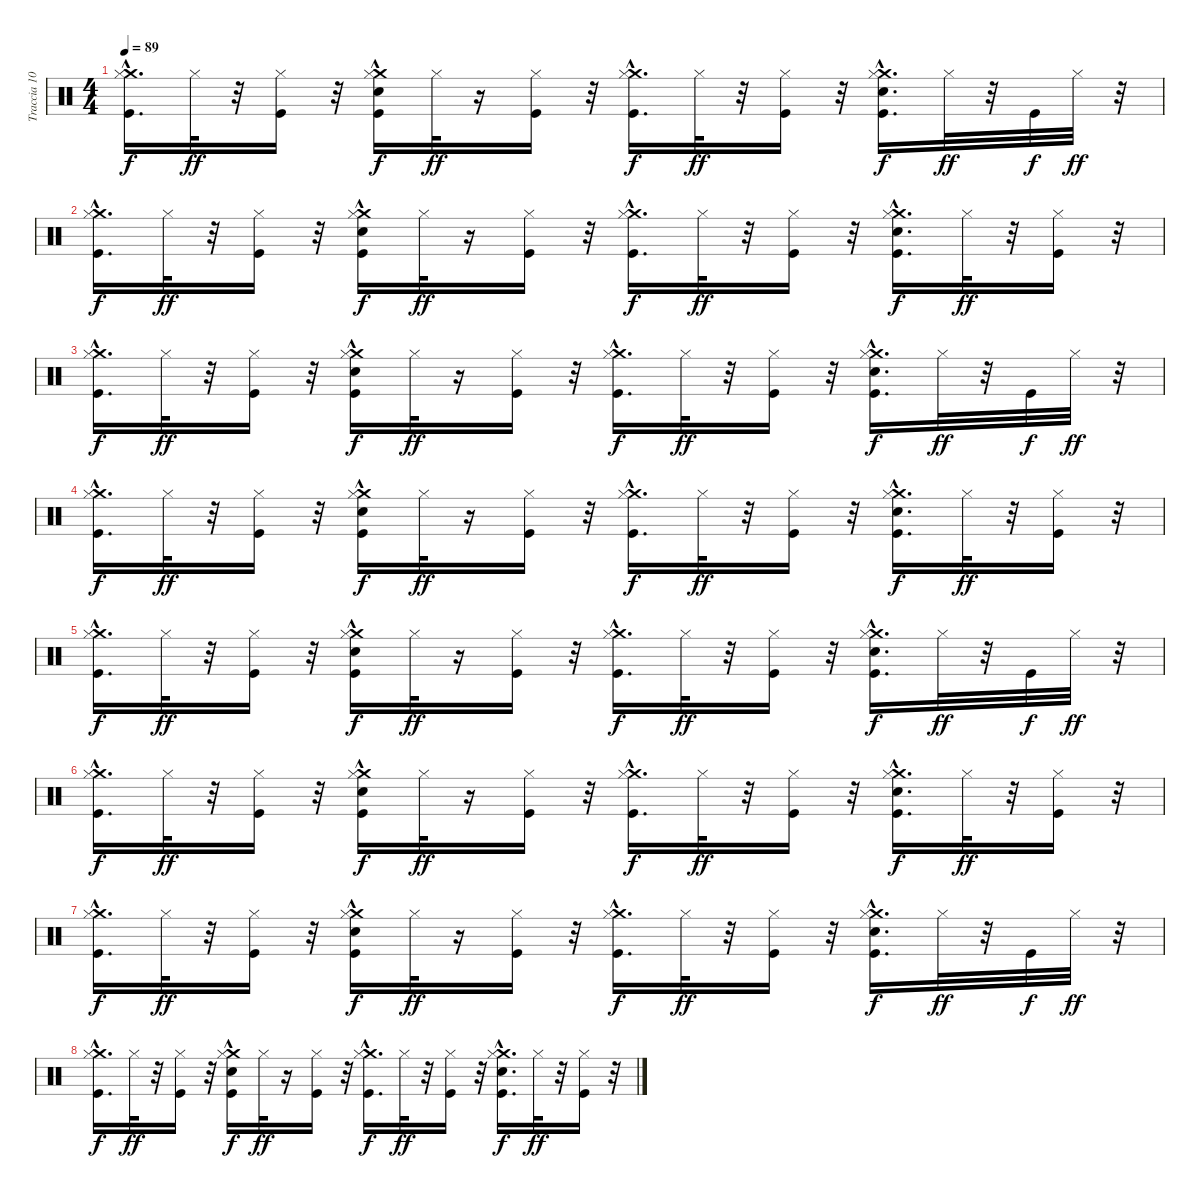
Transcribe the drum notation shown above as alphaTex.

\track ("Traccia 10" "Traccia 10") {instrument percussion}
\staff {score}
\articulation defaults
\ts (4 4)
\tempo 89
\clef neutral
\ks c
("Kick (hit)" "Crash medium (hit)"{hac} "Hi-Hat (closed)").16{d dy f} "Hi-Hat (closed)".32{dy ff} r.32 ("Kick (hit)" "Hi-Hat (closed)").16 r.32 ("Kick (hit)" "Crash medium (hit)"{hac} "Electric Snare (hit)" "Hi-Hat (closed)").16{dy f} "Hi-Hat (closed)".32{dy ff} r.16 ("Kick (hit)" "Hi-Hat (closed)").16 r.32 ("Kick (hit)" "Crash medium (hit)"{hac} "Hi-Hat (closed)").16{d dy f} "Hi-Hat (closed)".32{dy ff} r.32 ("Kick (hit)" "Hi-Hat (closed)").16 r.32 ("Kick (hit)" "Crash medium (hit)"{hac} "Electric Snare (hit)" "Hi-Hat (closed)").16{d dy f} "Hi-Hat (closed)".32{dy ff} r.32 "Kick (hit)".32{dy f} "Hi-Hat (closed)".32{dy ff} r.32 |
("Kick (hit)" "Crash medium (hit)"{hac} "Hi-Hat (closed)").16{d dy f} "Hi-Hat (closed)".32{dy ff} r.32 ("Kick (hit)" "Hi-Hat (closed)").16 r.32 ("Kick (hit)" "Crash medium (hit)"{hac} "Electric Snare (hit)" "Hi-Hat (closed)").16{dy f} "Hi-Hat (closed)".32{dy ff} r.16 ("Kick (hit)" "Hi-Hat (closed)").16 r.32 ("Kick (hit)" "Crash medium (hit)"{hac} "Hi-Hat (closed)").16{d dy f} "Hi-Hat (closed)".32{dy ff} r.32 ("Kick (hit)" "Hi-Hat (closed)").16 r.32 ("Kick (hit)" "Crash medium (hit)"{hac} "Electric Snare (hit)" "Hi-Hat (closed)").16{d dy f} "Hi-Hat (closed)".32{dy ff} r.32 ("Kick (hit)" "Hi-Hat (closed)").16 r.32 |
("Kick (hit)" "Crash medium (hit)"{hac} "Hi-Hat (closed)").16{d dy f} "Hi-Hat (closed)".32{dy ff} r.32 ("Kick (hit)" "Hi-Hat (closed)").16 r.32 ("Kick (hit)" "Crash medium (hit)"{hac} "Electric Snare (hit)" "Hi-Hat (closed)").16{dy f} "Hi-Hat (closed)".32{dy ff} r.16 ("Kick (hit)" "Hi-Hat (closed)").16 r.32 ("Kick (hit)" "Crash medium (hit)"{hac} "Hi-Hat (closed)").16{d dy f} "Hi-Hat (closed)".32{dy ff} r.32 ("Kick (hit)" "Hi-Hat (closed)").16 r.32 ("Kick (hit)" "Crash medium (hit)"{hac} "Electric Snare (hit)" "Hi-Hat (closed)").16{d dy f} "Hi-Hat (closed)".32{dy ff} r.32 "Kick (hit)".32{dy f} "Hi-Hat (closed)".32{dy ff} r.32 |
("Kick (hit)" "Crash medium (hit)"{hac} "Hi-Hat (closed)").16{d dy f} "Hi-Hat (closed)".32{dy ff} r.32 ("Kick (hit)" "Hi-Hat (closed)").16 r.32 ("Kick (hit)" "Crash medium (hit)"{hac} "Electric Snare (hit)" "Hi-Hat (closed)").16{dy f} "Hi-Hat (closed)".32{dy ff} r.16 ("Kick (hit)" "Hi-Hat (closed)").16 r.32 ("Kick (hit)" "Crash medium (hit)"{hac} "Hi-Hat (closed)").16{d dy f} "Hi-Hat (closed)".32{dy ff} r.32 ("Kick (hit)" "Hi-Hat (closed)").16 r.32 ("Kick (hit)" "Crash medium (hit)"{hac} "Electric Snare (hit)" "Hi-Hat (closed)").16{d dy f} "Hi-Hat (closed)".32{dy ff} r.32 ("Kick (hit)" "Hi-Hat (closed)").16 r.32 |
("Kick (hit)" "Crash medium (hit)"{hac} "Hi-Hat (closed)").16{d dy f} "Hi-Hat (closed)".32{dy ff} r.32 ("Kick (hit)" "Hi-Hat (closed)").16 r.32 ("Kick (hit)" "Crash medium (hit)"{hac} "Electric Snare (hit)" "Hi-Hat (closed)").16{dy f} "Hi-Hat (closed)".32{dy ff} r.16 ("Kick (hit)" "Hi-Hat (closed)").16 r.32 ("Kick (hit)" "Crash medium (hit)"{hac} "Hi-Hat (closed)").16{d dy f} "Hi-Hat (closed)".32{dy ff} r.32 ("Kick (hit)" "Hi-Hat (closed)").16 r.32 ("Kick (hit)" "Crash medium (hit)"{hac} "Electric Snare (hit)" "Hi-Hat (closed)").16{d dy f} "Hi-Hat (closed)".32{dy ff} r.32 "Kick (hit)".32{dy f} "Hi-Hat (closed)".32{dy ff} r.32 |
("Kick (hit)" "Crash medium (hit)"{hac} "Hi-Hat (closed)").16{d dy f} "Hi-Hat (closed)".32{dy ff} r.32 ("Kick (hit)" "Hi-Hat (closed)").16 r.32 ("Kick (hit)" "Crash medium (hit)"{hac} "Electric Snare (hit)" "Hi-Hat (closed)").16{dy f} "Hi-Hat (closed)".32{dy ff} r.16 ("Kick (hit)" "Hi-Hat (closed)").16 r.32 ("Kick (hit)" "Crash medium (hit)"{hac} "Hi-Hat (closed)").16{d dy f} "Hi-Hat (closed)".32{dy ff} r.32 ("Kick (hit)" "Hi-Hat (closed)").16 r.32 ("Kick (hit)" "Crash medium (hit)"{hac} "Electric Snare (hit)" "Hi-Hat (closed)").16{d dy f} "Hi-Hat (closed)".32{dy ff} r.32 ("Kick (hit)" "Hi-Hat (closed)").16 r.32 |
("Kick (hit)" "Crash medium (hit)"{hac} "Hi-Hat (closed)").16{d dy f} "Hi-Hat (closed)".32{dy ff} r.32 ("Kick (hit)" "Hi-Hat (closed)").16 r.32 ("Kick (hit)" "Crash medium (hit)"{hac} "Electric Snare (hit)" "Hi-Hat (closed)").16{dy f} "Hi-Hat (closed)".32{dy ff} r.16 ("Kick (hit)" "Hi-Hat (closed)").16 r.32 ("Kick (hit)" "Crash medium (hit)"{hac} "Hi-Hat (closed)").16{d dy f} "Hi-Hat (closed)".32{dy ff} r.32 ("Kick (hit)" "Hi-Hat (closed)").16 r.32 ("Kick (hit)" "Crash medium (hit)"{hac} "Electric Snare (hit)" "Hi-Hat (closed)").16{d dy f} "Hi-Hat (closed)".32{dy ff} r.32 "Kick (hit)".32{dy f} "Hi-Hat (closed)".32{dy ff} r.32 |
("Kick (hit)" "Crash medium (hit)"{hac} "Hi-Hat (closed)").16{d dy f} "Hi-Hat (closed)".32{dy ff} r.32 ("Kick (hit)" "Hi-Hat (closed)").16 r.32 ("Kick (hit)" "Crash medium (hit)"{hac} "Electric Snare (hit)" "Hi-Hat (closed)").16{dy f} "Hi-Hat (closed)".32{dy ff} r.16 ("Kick (hit)" "Hi-Hat (closed)").16 r.32 ("Kick (hit)" "Crash medium (hit)"{hac} "Hi-Hat (closed)").16{d dy f} "Hi-Hat (closed)".32{dy ff} r.32 ("Kick (hit)" "Hi-Hat (closed)").16 r.32 ("Kick (hit)" "Crash medium (hit)"{hac} "Electric Snare (hit)" "Hi-Hat (closed)").16{d dy f} "Hi-Hat (closed)".32{dy ff} r.32 ("Kick (hit)" "Hi-Hat (closed)").16 r.32
